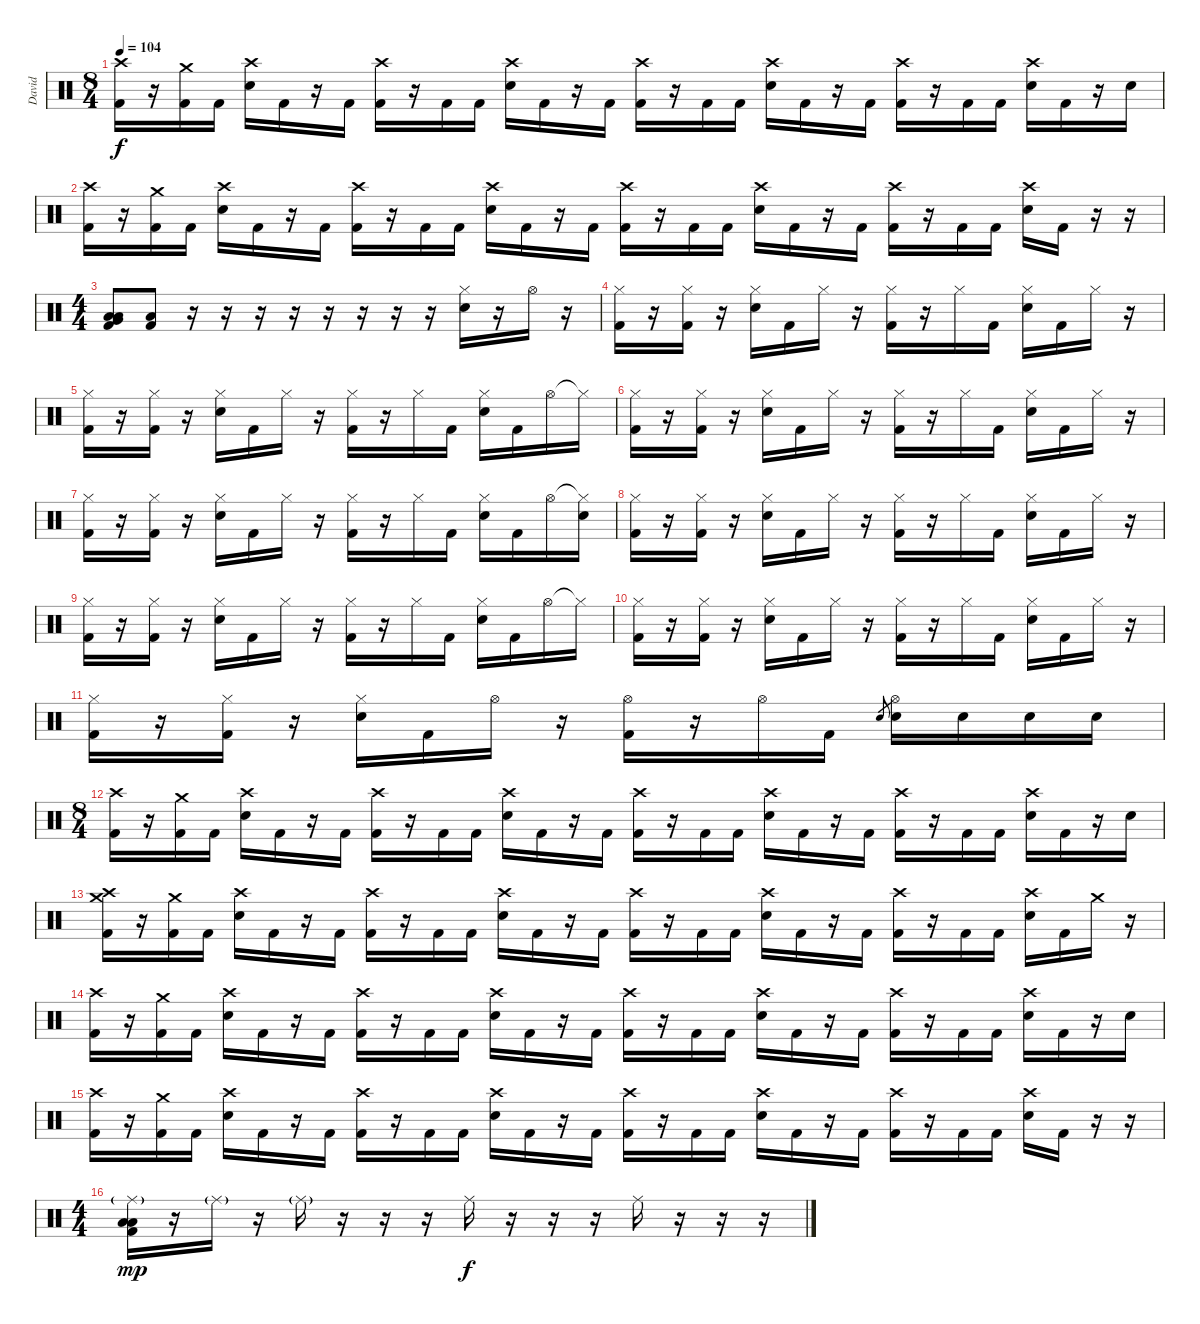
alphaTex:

\track ("David" "David") {instrument percussion}
\staff {score}
\articulation defaults
\ts (8 4)
\tempo 104
\clef neutral
\ks c
("Crash high (hit)" "Kick (hit) 2").16{dy f} r.16 ("Crash medium (hit)" "Kick (hit) 2").16 "Kick (hit) 2".16 ("Crash high (hit)" "Snare (hit) 2").16 "Kick (hit) 2".16 r.16 "Kick (hit) 2".16 ("Crash high (hit)" "Kick (hit) 2").16 r.16 "Kick (hit) 2".16 "Kick (hit) 2".16 ("Crash high (hit)" "Snare (hit) 2").16 "Kick (hit) 2".16 r.16 "Kick (hit) 2".16 ("Crash high (hit)" "Kick (hit) 2").16 r.16 "Kick (hit) 2".16 "Kick (hit) 2".16 ("Crash high (hit)" "Snare (hit) 2").16 "Kick (hit) 2".16 r.16 "Kick (hit) 2".16 ("Crash high (hit)" "Kick (hit) 2").16 r.16 "Kick (hit) 2".16 "Kick (hit) 2".16 ("Crash high (hit)" "Snare (hit) 2").16 "Kick (hit) 2".16 r.16 "Snare (hit) 2".16 |
("Crash high (hit)" "Kick (hit) 2").16 r.16 ("Crash medium (hit)" "Kick (hit) 2").16 "Kick (hit) 2".16 ("Crash high (hit)" "Snare (hit) 2").16 "Kick (hit) 2".16 r.16 "Kick (hit) 2".16 ("Crash high (hit)" "Kick (hit) 2").16 r.16 "Kick (hit) 2".16 "Kick (hit) 2".16 ("Crash high (hit)" "Snare (hit) 2").16 "Kick (hit) 2".16 r.16 "Kick (hit) 2".16 ("Crash high (hit)" "Kick (hit) 2").16 r.16 "Kick (hit) 2".16 "Kick (hit) 2".16 ("Crash high (hit)" "Snare (hit) 2").16 "Kick (hit) 2".16 r.16 "Kick (hit) 2".16 ("Crash high (hit)" "Kick (hit) 2").16 r.16 "Kick (hit) 2".16 "Kick (hit) 2".16 ("Crash high (hit)" "Snare (hit) 2").16 "Kick (hit) 2".16 r.16 r.16 |
\ts (4 4)
("Very Low Tom (hit)" "Low Floor Tom (hit)" "Low Floor Tom (hit)" "Kick (hit) 2").8 ("Low Floor Tom (hit)" "Kick (hit) 2").8 r.16 r.16 r.16 r.16 r.16 r.16 r.16 r.16 ("Hi-Hat (closed)" "Snare (hit) 2").16 r.16 "Hi-Hat (open)".16 r.16 |
("Hi-Hat (closed)" "Kick (hit) 2").16 r.16 ("Hi-Hat (closed)" "Kick (hit) 2").16 r.16 ("Hi-Hat (closed)" "Snare (hit) 2").16 "Kick (hit) 2".16 "Hi-Hat (closed)".16 r.16 ("Hi-Hat (closed)" "Kick (hit) 2").16 r.16 "Hi-Hat (closed)".16 "Kick (hit) 2".16 ("Hi-Hat (closed)" "Snare (hit) 2").16 "Kick (hit) 2".16 "Hi-Hat (closed)".16 r.16 |
("Hi-Hat (closed)" "Kick (hit) 2").16 r.16 ("Hi-Hat (closed)" "Kick (hit) 2").16 r.16 ("Hi-Hat (closed)" "Snare (hit) 2").16 "Kick (hit) 2".16 "Hi-Hat (closed)".16 r.16 ("Hi-Hat (closed)" "Kick (hit) 2").16 r.16 "Hi-Hat (closed)".16 "Kick (hit) 2".16 ("Hi-Hat (closed)" "Snare (hit) 2").16 "Kick (hit) 2".16 "Hi-Hat (open)".16 "Hi-Hat (closed)"{t}.16 |
("Hi-Hat (closed)" "Kick (hit) 2").16 r.16 ("Hi-Hat (closed)" "Kick (hit) 2").16 r.16 ("Hi-Hat (closed)" "Snare (hit) 2").16 "Kick (hit) 2".16 "Hi-Hat (closed)".16 r.16 ("Hi-Hat (closed)" "Kick (hit) 2").16 r.16 "Hi-Hat (closed)".16 "Kick (hit) 2".16 ("Hi-Hat (closed)" "Snare (hit) 2").16 "Kick (hit) 2".16 "Hi-Hat (closed)".16 r.16 |
("Hi-Hat (closed)" "Kick (hit) 2").16 r.16 ("Hi-Hat (closed)" "Kick (hit) 2").16 r.16 ("Hi-Hat (closed)" "Snare (hit) 2").16 "Kick (hit) 2".16 "Hi-Hat (closed)".16 r.16 ("Hi-Hat (closed)" "Kick (hit) 2").16 r.16 "Hi-Hat (closed)".16 "Kick (hit) 2".16 ("Hi-Hat (closed)" "Snare (hit) 2").16 "Kick (hit) 2".16 "Hi-Hat (open)".16 ("Hi-Hat (closed)"{t} "Snare (hit) 2").16 |
("Hi-Hat (closed)" "Kick (hit) 2").16 r.16 ("Hi-Hat (closed)" "Kick (hit) 2").16 r.16 ("Hi-Hat (closed)" "Snare (hit) 2").16 "Kick (hit) 2".16 "Hi-Hat (closed)".16 r.16 ("Hi-Hat (closed)" "Kick (hit) 2").16 r.16 "Hi-Hat (closed)".16 "Kick (hit) 2".16 ("Hi-Hat (closed)" "Snare (hit) 2").16 "Kick (hit) 2".16 "Hi-Hat (closed)".16 r.16 |
("Hi-Hat (closed)" "Kick (hit) 2").16 r.16 ("Hi-Hat (closed)" "Kick (hit) 2").16 r.16 ("Hi-Hat (closed)" "Snare (hit) 2").16 "Kick (hit) 2".16 "Hi-Hat (closed)".16 r.16 ("Hi-Hat (closed)" "Kick (hit) 2").16 r.16 "Hi-Hat (closed)".16 "Kick (hit) 2".16 ("Hi-Hat (closed)" "Snare (hit) 2").16 "Kick (hit) 2".16 "Hi-Hat (open)".16 "Hi-Hat (closed)"{t}.16 |
("Hi-Hat (closed)" "Kick (hit) 2").16 r.16 ("Hi-Hat (closed)" "Kick (hit) 2").16 r.16 ("Hi-Hat (closed)" "Snare (hit) 2").16 "Kick (hit) 2".16 "Hi-Hat (closed)".16 r.16 ("Hi-Hat (closed)" "Kick (hit) 2").16 r.16 "Hi-Hat (closed)".16 "Kick (hit) 2".16 ("Hi-Hat (closed)" "Snare (hit) 2").16 "Kick (hit) 2".16 "Hi-Hat (closed)".16 r.16 |
("Hi-Hat (closed)" "Kick (hit) 2").16 r.16 ("Hi-Hat (closed)" "Kick (hit) 2").16 r.16 ("Hi-Hat (closed)" "Snare (hit) 2").16 "Kick (hit) 2".16 "Hi-Hat (open)".16 r.16 ("Hi-Hat (open)" "Kick (hit) 2").16 r.16 "Hi-Hat (open)".16 "Kick (hit) 2".16 "Snare (hit) 2".8{gr} ("Hi-Hat (open)" "Snare (hit) 2").16 "Snare (hit) 2".16 "Snare (hit) 2".16 "Snare (hit) 2".16 |
\ts (8 4)
("Crash high (hit)" "Kick (hit) 2").16 r.16 ("Crash medium (hit)" "Kick (hit) 2").16 "Kick (hit) 2".16 ("Crash high (hit)" "Snare (hit) 2").16 "Kick (hit) 2".16 r.16 "Kick (hit) 2".16 ("Crash high (hit)" "Kick (hit) 2").16 r.16 "Kick (hit) 2".16 "Kick (hit) 2".16 ("Crash high (hit)" "Snare (hit) 2").16 "Kick (hit) 2".16 r.16 "Kick (hit) 2".16 ("Crash high (hit)" "Kick (hit) 2").16 r.16 "Kick (hit) 2".16 "Kick (hit) 2".16 ("Crash high (hit)" "Snare (hit) 2").16 "Kick (hit) 2".16 r.16 "Kick (hit) 2".16 ("Crash high (hit)" "Kick (hit) 2").16 r.16 "Kick (hit) 2".16 "Kick (hit) 2".16 ("Crash high (hit)" "Snare (hit) 2").16 "Kick (hit) 2".16 r.16 "Snare (hit) 2".16 |
("Crash medium (hit)" "Crash high (hit)" "Kick (hit) 2").16 r.16 ("Crash medium (hit)" "Kick (hit) 2").16 "Kick (hit) 2".16 ("Crash high (hit)" "Snare (hit) 2").16 "Kick (hit) 2".16 r.16 "Kick (hit) 2".16 ("Crash high (hit)" "Kick (hit) 2").16 r.16 "Kick (hit) 2".16 "Kick (hit) 2".16 ("Crash high (hit)" "Snare (hit) 2").16 "Kick (hit) 2".16 r.16 "Kick (hit) 2".16 ("Crash high (hit)" "Kick (hit) 2").16 r.16 "Kick (hit) 2".16 "Kick (hit) 2".16 ("Crash high (hit)" "Snare (hit) 2").16 "Kick (hit) 2".16 r.16 "Kick (hit) 2".16 ("Crash high (hit)" "Kick (hit) 2").16 r.16 "Kick (hit) 2".16 "Kick (hit) 2".16 ("Crash high (hit)" "Snare (hit) 2").16 "Kick (hit) 2".16 "Crash medium (hit)".16 r.16 |
("Crash high (hit)" "Kick (hit) 2").16 r.16 ("Crash medium (hit)" "Kick (hit) 2").16 "Kick (hit) 2".16 ("Crash high (hit)" "Snare (hit) 2").16 "Kick (hit) 2".16 r.16 "Kick (hit) 2".16 ("Crash high (hit)" "Kick (hit) 2").16 r.16 "Kick (hit) 2".16 "Kick (hit) 2".16 ("Crash high (hit)" "Snare (hit) 2").16 "Kick (hit) 2".16 r.16 "Kick (hit) 2".16 ("Crash high (hit)" "Kick (hit) 2").16 r.16 "Kick (hit) 2".16 "Kick (hit) 2".16 ("Crash high (hit)" "Snare (hit) 2").16 "Kick (hit) 2".16 r.16 "Kick (hit) 2".16 ("Crash high (hit)" "Kick (hit) 2").16 r.16 "Kick (hit) 2".16 "Kick (hit) 2".16 ("Crash high (hit)" "Snare (hit) 2").16 "Kick (hit) 2".16 r.16 "Snare (hit) 2".16 |
("Crash high (hit)" "Kick (hit) 2").16 r.16 ("Crash medium (hit)" "Kick (hit) 2").16 "Kick (hit) 2".16 ("Crash high (hit)" "Snare (hit) 2").16 "Kick (hit) 2".16 r.16 "Kick (hit) 2".16 ("Crash high (hit)" "Kick (hit) 2").16 r.16 "Kick (hit) 2".16 "Kick (hit) 2".16 ("Crash high (hit)" "Snare (hit) 2").16 "Kick (hit) 2".16 r.16 "Kick (hit) 2".16 ("Crash high (hit)" "Kick (hit) 2").16 r.16 "Kick (hit) 2".16 "Kick (hit) 2".16 ("Crash high (hit)" "Snare (hit) 2").16 "Kick (hit) 2".16 r.16 "Kick (hit) 2".16 ("Crash high (hit)" "Kick (hit) 2").16 r.16 "Kick (hit) 2".16 "Kick (hit) 2".16 ("Crash high (hit)" "Snare (hit) 2").16 "Kick (hit) 2".16 r.16 r.16 |
\ts (4 4)
("Ride (middle)"{g} "Low Floor Tom (hit)" "Low Floor Tom (hit)" "Kick (hit) 2").16{dy mp} r.16 "Ride (middle)"{g}.16 r.16 "Ride (middle)"{g}.16 r.16 r.16{volume 10} r.16 "Ride (middle)".16{dy f} r.16 r.16 r.16 "Ride (middle)".16 r.16 r.16 r.16
